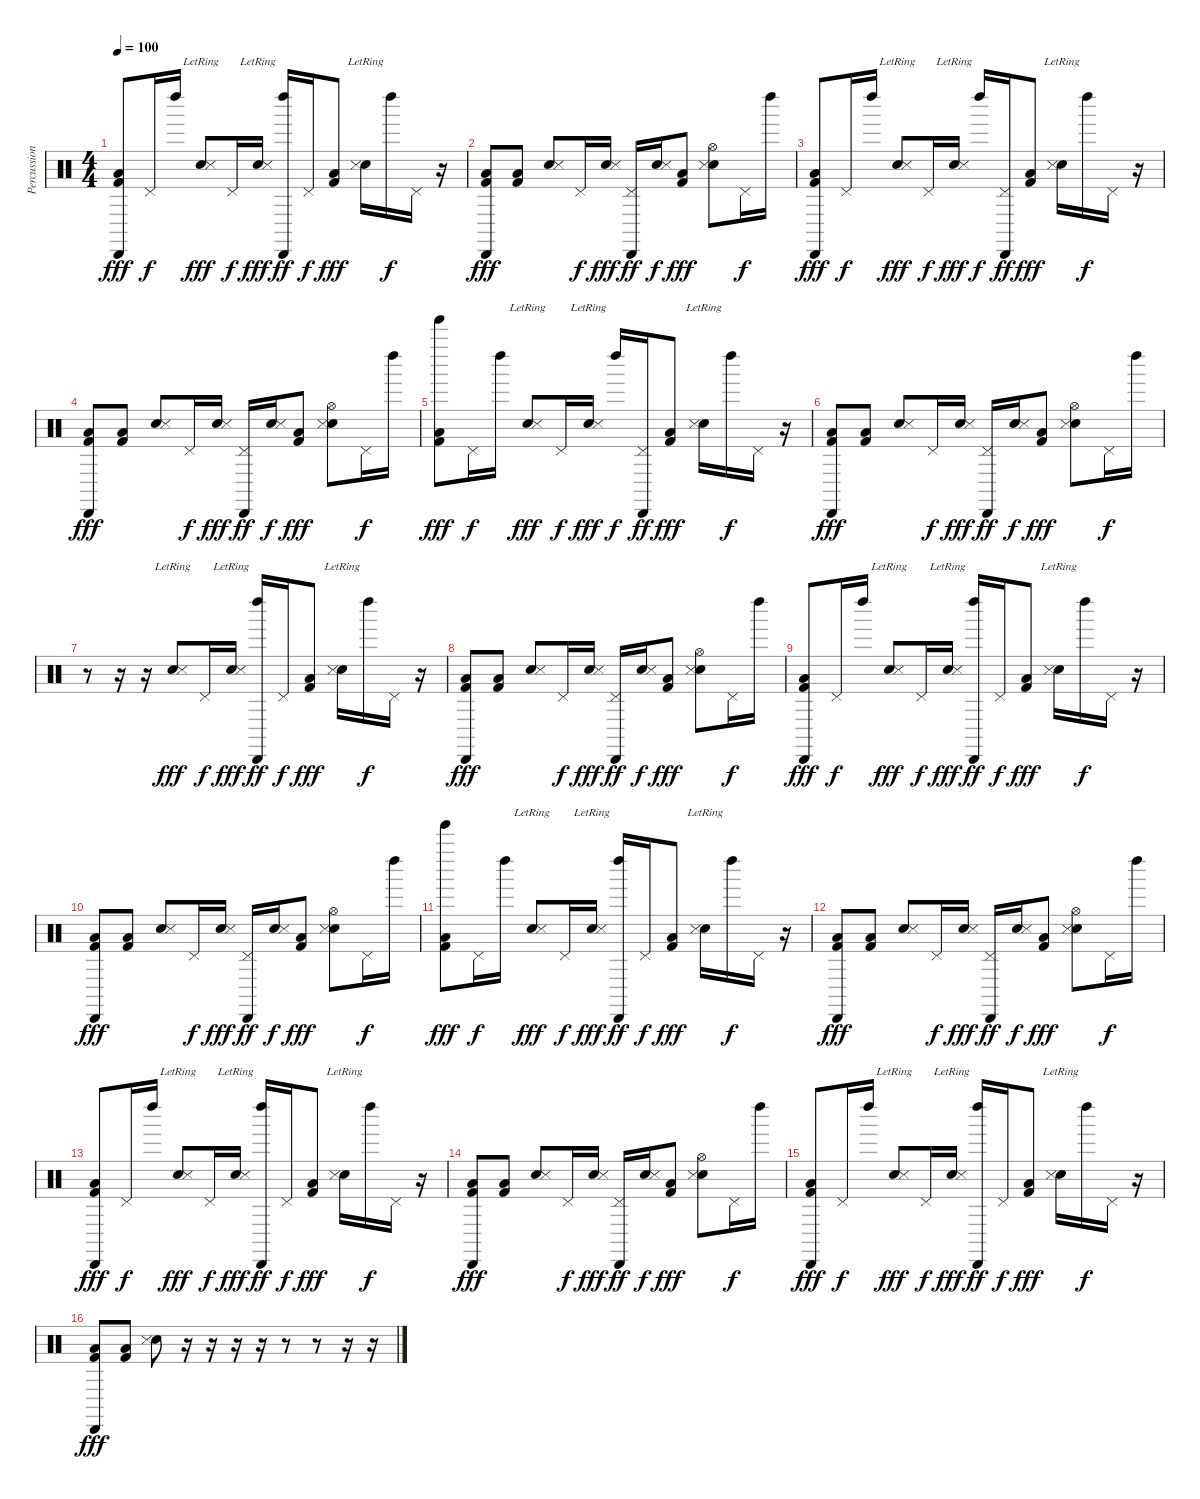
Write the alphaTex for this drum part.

\track ("Percussion" "Percussion") {instrument percussion}
\staff {score}
\articulation defaults
\ts (4 4)
\tempo 100
\clef neutral
\ks c
("Cabasa (hit)" "Low Floor Tom (hit)" "Kick (hit) 2").8{dy fff} "Pedal Hi-Hat (hit)".16{dy f} "Left Maraca (hit)".16 ("Electric Snare (hit)" "Snare (side stick) 3"{lr}).8{dy fff} "Pedal Hi-Hat (hit)".16{dy f} ("Electric Snare (hit)" "Snare (side stick) 3"{lr}).16{dy fff} ("Cabasa (hit)" "Left Maraca (hit)").16{dy ff} "Pedal Hi-Hat (hit)".16{dy f} ("Low Floor Tom (hit)" "Kick (hit) 2").8{dy fff} ("Electric Snare (hit)"{lr} "Snare (side stick) 3"{lr}).16 "Left Maraca (hit)".16{dy f} "Pedal Hi-Hat (hit)".16 r.16 |
("Cabasa (hit)" "Low Floor Tom (hit)" "Kick (hit) 2").8{dy fff} ("Low Floor Tom (hit)" "Kick (hit) 2").8 ("Electric Snare (hit)" "Snare (side stick) 3").8 "Pedal Hi-Hat (hit)".16{dy f} ("Electric Snare (hit)" "Snare (side stick) 3").16{dy fff} ("Cabasa (hit)" "Pedal Hi-Hat (hit)").16{dy ff} ("Electric Snare (hit)" "Snare (side stick) 3").16{dy f} ("Low Floor Tom (hit)" "Kick (hit) 2").8{dy fff} ("Hi-Hat (open)" "Electric Snare (hit)" "Snare (side stick) 3").8 "Pedal Hi-Hat (hit)".16{dy f} "Left Maraca (hit)".16 |
("Cabasa (hit)" "Low Floor Tom (hit)" "Kick (hit) 2").8{dy fff} "Pedal Hi-Hat (hit)".16{dy f} "Left Maraca (hit)".16 ("Electric Snare (hit)" "Snare (side stick) 3"{lr}).8{dy fff} "Pedal Hi-Hat (hit)".16{dy f} ("Electric Snare (hit)" "Snare (side stick) 3"{lr}).16{dy fff} "Left Maraca (hit)".16{dy f} ("Cabasa (hit)" "Pedal Hi-Hat (hit)").16{dy ff} ("Low Floor Tom (hit)" "Kick (hit) 2").8{dy fff} ("Electric Snare (hit)"{lr} "Snare (side stick) 3"{lr}).16 "Left Maraca (hit)".16{dy f} "Pedal Hi-Hat (hit)".16 r.16 |
("Cabasa (hit)" "Low Floor Tom (hit)" "Kick (hit) 2").8{dy fff} ("Low Floor Tom (hit)" "Kick (hit) 2").8 ("Electric Snare (hit)" "Snare (side stick) 3").8 "Pedal Hi-Hat (hit)".16{dy f} ("Electric Snare (hit)" "Snare (side stick) 3").16{dy fff} ("Cabasa (hit)" "Pedal Hi-Hat (hit)").16{dy ff} ("Electric Snare (hit)" "Snare (side stick) 3").16{dy f} ("Low Floor Tom (hit)" "Kick (hit) 2").8{dy fff} ("Hi-Hat (open)" "Electric Snare (hit)" "Snare (side stick) 3").8 "Pedal Hi-Hat (hit)".16{dy f} "Left Maraca (hit)".16 |
("Tinkle Bell (hit)" "Low Floor Tom (hit)" "Kick (hit) 2").8{dy fff} "Pedal Hi-Hat (hit)".16{dy f} "Left Maraca (hit)".16 ("Electric Snare (hit)" "Snare (side stick) 3"{lr}).8{dy fff} "Pedal Hi-Hat (hit)".16{dy f} ("Electric Snare (hit)" "Snare (side stick) 3"{lr}).16{dy fff} "Left Maraca (hit)".16{dy f} ("Cabasa (hit)" "Pedal Hi-Hat (hit)").16{dy ff} ("Low Floor Tom (hit)" "Kick (hit) 2").8{dy fff} ("Electric Snare (hit)"{lr} "Snare (side stick) 3"{lr}).16 "Left Maraca (hit)".16{dy f} "Pedal Hi-Hat (hit)".16 r.16 |
("Cabasa (hit)" "Low Floor Tom (hit)" "Kick (hit) 2").8{dy fff} ("Low Floor Tom (hit)" "Kick (hit) 2").8 ("Electric Snare (hit)" "Snare (side stick) 3").8 "Pedal Hi-Hat (hit)".16{dy f} ("Electric Snare (hit)" "Snare (side stick) 3").16{dy fff} ("Cabasa (hit)" "Pedal Hi-Hat (hit)").16{dy ff} ("Electric Snare (hit)" "Snare (side stick) 3").16{dy f} ("Low Floor Tom (hit)" "Kick (hit) 2").8{dy fff} ("Hi-Hat (open)" "Electric Snare (hit)" "Snare (side stick) 3").8 "Pedal Hi-Hat (hit)".16{dy f} "Left Maraca (hit)".16 |
r.8 r.16 r.16 ("Electric Snare (hit)" "Snare (side stick) 3"{lr}).8{dy fff} "Pedal Hi-Hat (hit)".16{dy f} ("Electric Snare (hit)" "Snare (side stick) 3"{lr}).16{dy fff} ("Cabasa (hit)" "Left Maraca (hit)").16{dy ff} "Pedal Hi-Hat (hit)".16{dy f} ("Low Floor Tom (hit)" "Kick (hit) 2").8{dy fff} ("Electric Snare (hit)"{lr} "Snare (side stick) 3"{lr}).16 "Left Maraca (hit)".16{dy f} "Pedal Hi-Hat (hit)".16 r.16 |
("Cabasa (hit)" "Low Floor Tom (hit)" "Kick (hit) 2").8{dy fff} ("Low Floor Tom (hit)" "Kick (hit) 2").8 ("Electric Snare (hit)" "Snare (side stick) 3").8 "Pedal Hi-Hat (hit)".16{dy f} ("Electric Snare (hit)" "Snare (side stick) 3").16{dy fff} ("Cabasa (hit)" "Pedal Hi-Hat (hit)").16{dy ff} ("Electric Snare (hit)" "Snare (side stick) 3").16{dy f} ("Low Floor Tom (hit)" "Kick (hit) 2").8{dy fff} ("Hi-Hat (open)" "Electric Snare (hit)" "Snare (side stick) 3").8 "Pedal Hi-Hat (hit)".16{dy f} "Left Maraca (hit)".16 |
("Cabasa (hit)" "Low Floor Tom (hit)" "Kick (hit) 2").8{dy fff} "Pedal Hi-Hat (hit)".16{dy f} "Left Maraca (hit)".16 ("Electric Snare (hit)" "Snare (side stick) 3"{lr}).8{dy fff} "Pedal Hi-Hat (hit)".16{dy f} ("Electric Snare (hit)" "Snare (side stick) 3"{lr}).16{dy fff} ("Cabasa (hit)" "Left Maraca (hit)").16{dy ff} "Pedal Hi-Hat (hit)".16{dy f} ("Low Floor Tom (hit)" "Kick (hit) 2").8{dy fff} ("Electric Snare (hit)"{lr} "Snare (side stick) 3"{lr}).16 "Left Maraca (hit)".16{dy f} "Pedal Hi-Hat (hit)".16 r.16 |
("Cabasa (hit)" "Low Floor Tom (hit)" "Kick (hit) 2").8{dy fff} ("Low Floor Tom (hit)" "Kick (hit) 2").8 ("Electric Snare (hit)" "Snare (side stick) 3").8 "Pedal Hi-Hat (hit)".16{dy f} ("Electric Snare (hit)" "Snare (side stick) 3").16{dy fff} ("Cabasa (hit)" "Pedal Hi-Hat (hit)").16{dy ff} ("Electric Snare (hit)" "Snare (side stick) 3").16{dy f} ("Low Floor Tom (hit)" "Kick (hit) 2").8{dy fff} ("Hi-Hat (open)" "Electric Snare (hit)" "Snare (side stick) 3").8 "Pedal Hi-Hat (hit)".16{dy f} "Left Maraca (hit)".16 |
("Tinkle Bell (hit)" "Low Floor Tom (hit)" "Kick (hit) 2").8{dy fff} "Pedal Hi-Hat (hit)".16{dy f} "Left Maraca (hit)".16 ("Electric Snare (hit)" "Snare (side stick) 3"{lr}).8{dy fff} "Pedal Hi-Hat (hit)".16{dy f} ("Electric Snare (hit)" "Snare (side stick) 3"{lr}).16{dy fff} ("Cabasa (hit)" "Left Maraca (hit)").16{dy ff} "Pedal Hi-Hat (hit)".16{dy f} ("Low Floor Tom (hit)" "Kick (hit) 2").8{dy fff} ("Electric Snare (hit)"{lr} "Snare (side stick) 3"{lr}).16 "Left Maraca (hit)".16{dy f} "Pedal Hi-Hat (hit)".16 r.16 |
("Cabasa (hit)" "Low Floor Tom (hit)" "Kick (hit) 2").8{dy fff} ("Low Floor Tom (hit)" "Kick (hit) 2").8 ("Electric Snare (hit)" "Snare (side stick) 3").8 "Pedal Hi-Hat (hit)".16{dy f} ("Electric Snare (hit)" "Snare (side stick) 3").16{dy fff} ("Cabasa (hit)" "Pedal Hi-Hat (hit)").16{dy ff} ("Electric Snare (hit)" "Snare (side stick) 3").16{dy f} ("Low Floor Tom (hit)" "Kick (hit) 2").8{dy fff} ("Hi-Hat (open)" "Electric Snare (hit)" "Snare (side stick) 3").8 "Pedal Hi-Hat (hit)".16{dy f} "Left Maraca (hit)".16 |
("Cabasa (hit)" "Low Floor Tom (hit)" "Kick (hit) 2").8{dy fff} "Pedal Hi-Hat (hit)".16{dy f} "Left Maraca (hit)".16 ("Electric Snare (hit)" "Snare (side stick) 3"{lr}).8{dy fff} "Pedal Hi-Hat (hit)".16{dy f} ("Electric Snare (hit)" "Snare (side stick) 3"{lr}).16{dy fff} ("Cabasa (hit)" "Left Maraca (hit)").16{dy ff} "Pedal Hi-Hat (hit)".16{dy f} ("Low Floor Tom (hit)" "Kick (hit) 2").8{dy fff} ("Electric Snare (hit)"{lr} "Snare (side stick) 3"{lr}).16 "Left Maraca (hit)".16{dy f} "Pedal Hi-Hat (hit)".16 r.16 |
("Cabasa (hit)" "Low Floor Tom (hit)" "Kick (hit) 2").8{dy fff} ("Low Floor Tom (hit)" "Kick (hit) 2").8 ("Electric Snare (hit)" "Snare (side stick) 3").8 "Pedal Hi-Hat (hit)".16{dy f} ("Electric Snare (hit)" "Snare (side stick) 3").16{dy fff} ("Cabasa (hit)" "Pedal Hi-Hat (hit)").16{dy ff} ("Electric Snare (hit)" "Snare (side stick) 3").16{dy f} ("Low Floor Tom (hit)" "Kick (hit) 2").8{dy fff} ("Hi-Hat (open)" "Electric Snare (hit)" "Snare (side stick) 3").8 "Pedal Hi-Hat (hit)".16{dy f} "Left Maraca (hit)".16 |
("Cabasa (hit)" "Low Floor Tom (hit)" "Kick (hit) 2").8{dy fff} "Pedal Hi-Hat (hit)".16{dy f} "Left Maraca (hit)".16 ("Electric Snare (hit)" "Snare (side stick) 3"{lr}).8{dy fff} "Pedal Hi-Hat (hit)".16{dy f} ("Electric Snare (hit)" "Snare (side stick) 3"{lr}).16{dy fff} ("Cabasa (hit)" "Left Maraca (hit)").16{dy ff} "Pedal Hi-Hat (hit)".16{dy f} ("Low Floor Tom (hit)" "Kick (hit) 2").8{dy fff} ("Electric Snare (hit)"{lr} "Snare (side stick) 3"{lr}).16 "Left Maraca (hit)".16{dy f} "Pedal Hi-Hat (hit)".16 r.16 |
("Cabasa (hit)" "Low Floor Tom (hit)" "Kick (hit) 2").8{dy fff} ("Low Floor Tom (hit)" "Kick (hit) 2").8 ("Electric Snare (hit)" "Snare (side stick) 3").8 r.16 r.16 r.16 r.16 r.8 r.8 r.16 r.16
